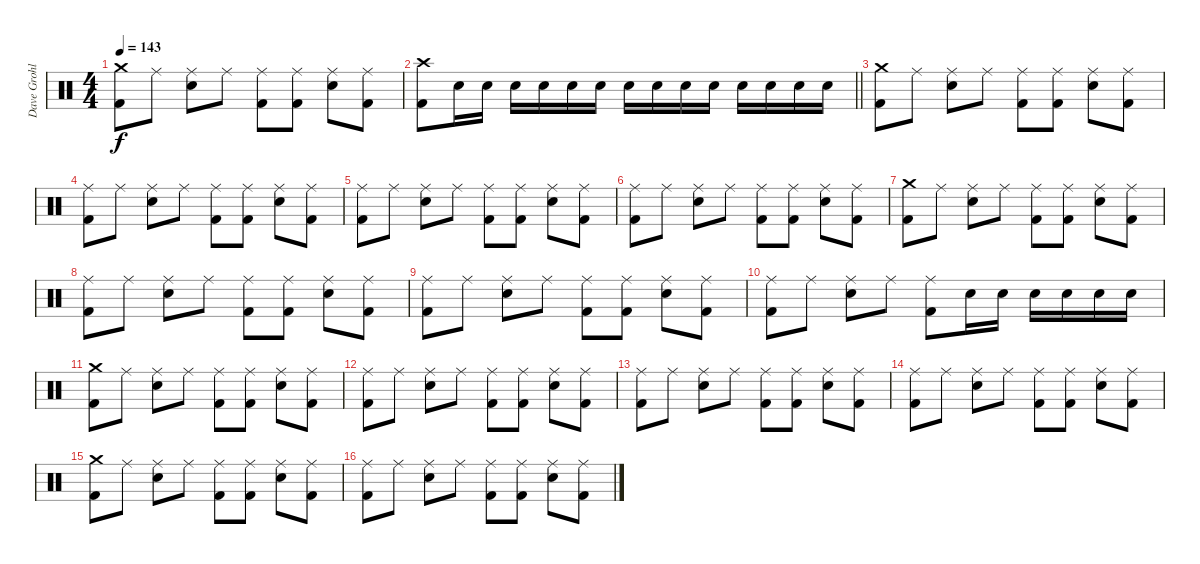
\track ("Dave Grohl" "Dave Grohl") {instrument percussion}
\staff {score}
\articulation defaults
\ts (4 4)
\tempo 143
\clef neutral
\ks c
("Crash medium (hit)" "Kick (hit) 2").8{dy f} "Ride (middle)".8 ("Ride (middle)" "Snare (hit) 2").8 "Ride (middle)".8 ("Ride (middle)" "Kick (hit) 2").8 ("Ride (middle)" "Kick (hit) 2").8 ("Ride (middle)" "Snare (hit) 2").8 ("Ride (middle)" "Kick (hit) 2").8 |
\barLineRight lightlight
("Crash high (hit)" "Kick (hit) 2").8 "Snare (hit) 2".16 "Snare (hit) 2".16 "Snare (hit) 2".16 "Snare (hit) 2".16 "Snare (hit) 2".16 "Snare (hit) 2".16 "Snare (hit) 2".16 "Snare (hit) 2".16 "Snare (hit) 2".16 "Snare (hit) 2".16 "Snare (hit) 2".16 "Snare (hit) 2".16 "Snare (hit) 2".16 "Snare (hit) 2".16 |
("Crash medium (hit)" "Kick (hit) 2").8 "Ride (middle)".8 ("Ride (middle)" "Snare (hit) 2").8 "Ride (middle)".8 ("Ride (middle)" "Kick (hit) 2").8 ("Ride (middle)" "Kick (hit) 2").8 ("Ride (middle)" "Snare (hit) 2").8 ("Ride (middle)" "Kick (hit) 2").8 |
("Ride (middle)" "Kick (hit) 2").8 "Ride (middle)".8 ("Ride (middle)" "Snare (hit) 2").8 "Ride (middle)".8 ("Ride (middle)" "Kick (hit) 2").8 ("Ride (middle)" "Kick (hit) 2").8 ("Ride (middle)" "Snare (hit) 2").8 ("Ride (middle)" "Kick (hit) 2").8 |
("Ride (middle)" "Kick (hit) 2").8 "Ride (middle)".8 ("Ride (middle)" "Snare (hit) 2").8 "Ride (middle)".8 ("Ride (middle)" "Kick (hit) 2").8 ("Ride (middle)" "Kick (hit) 2").8 ("Ride (middle)" "Snare (hit) 2").8 ("Ride (middle)" "Kick (hit) 2").8 |
("Ride (middle)" "Kick (hit) 2").8 "Ride (middle)".8 ("Ride (middle)" "Snare (hit) 2").8 "Ride (middle)".8 ("Ride (middle)" "Kick (hit) 2").8 ("Ride (middle)" "Kick (hit) 2").8 ("Ride (middle)" "Snare (hit) 2").8 ("Ride (middle)" "Kick (hit) 2").8 |
("Crash medium (hit)" "Kick (hit) 2").8 "Ride (middle)".8 ("Ride (middle)" "Snare (hit) 2").8 "Ride (middle)".8 ("Ride (middle)" "Kick (hit) 2").8 ("Ride (middle)" "Kick (hit) 2").8 ("Ride (middle)" "Snare (hit) 2").8 ("Ride (middle)" "Kick (hit) 2").8 |
("Ride (middle)" "Kick (hit) 2").8 "Ride (middle)".8 ("Ride (middle)" "Snare (hit) 2").8 "Ride (middle)".8 ("Ride (middle)" "Kick (hit) 2").8 ("Ride (middle)" "Kick (hit) 2").8 ("Ride (middle)" "Snare (hit) 2").8 ("Ride (middle)" "Kick (hit) 2").8 |
("Ride (middle)" "Kick (hit) 2").8 "Ride (middle)".8 ("Ride (middle)" "Snare (hit) 2").8 "Ride (middle)".8 ("Ride (middle)" "Kick (hit) 2").8 ("Ride (middle)" "Kick (hit) 2").8 ("Ride (middle)" "Snare (hit) 2").8 ("Ride (middle)" "Kick (hit) 2").8 |
("Ride (middle)" "Kick (hit) 2").8 "Ride (middle)".8 ("Ride (middle)" "Snare (hit) 2").8 "Ride (middle)".8 ("Ride (middle)" "Kick (hit) 2").8 "Snare (hit) 2".16 "Snare (hit) 2".16 "Snare (hit) 2".16 "Snare (hit) 2".16 "Snare (hit) 2".16 "Snare (hit) 2".16 |
("Crash medium (hit)" "Kick (hit) 2").8 "Ride (middle)".8 ("Ride (middle)" "Snare (hit) 2").8 "Ride (middle)".8 ("Ride (middle)" "Kick (hit) 2").8 ("Ride (middle)" "Kick (hit) 2").8 ("Ride (middle)" "Snare (hit) 2").8 ("Ride (middle)" "Kick (hit) 2").8 |
("Ride (middle)" "Kick (hit) 2").8 "Ride (middle)".8 ("Ride (middle)" "Snare (hit) 2").8 "Ride (middle)".8 ("Ride (middle)" "Kick (hit) 2").8 ("Ride (middle)" "Kick (hit) 2").8 ("Ride (middle)" "Snare (hit) 2").8 ("Ride (middle)" "Kick (hit) 2").8 |
("Ride (middle)" "Kick (hit) 2").8 "Ride (middle)".8 ("Ride (middle)" "Snare (hit) 2").8 "Ride (middle)".8 ("Ride (middle)" "Kick (hit) 2").8 ("Ride (middle)" "Kick (hit) 2").8 ("Ride (middle)" "Snare (hit) 2").8 ("Ride (middle)" "Kick (hit) 2").8 |
("Ride (middle)" "Kick (hit) 2").8 "Ride (middle)".8 ("Ride (middle)" "Snare (hit) 2").8 "Ride (middle)".8 ("Ride (middle)" "Kick (hit) 2").8 ("Ride (middle)" "Kick (hit) 2").8 ("Ride (middle)" "Snare (hit) 2").8 ("Ride (middle)" "Kick (hit) 2").8 |
("Crash medium (hit)" "Kick (hit) 2").8 "Ride (middle)".8 ("Ride (middle)" "Snare (hit) 2").8 "Ride (middle)".8 ("Ride (middle)" "Kick (hit) 2").8 ("Ride (middle)" "Kick (hit) 2").8 ("Ride (middle)" "Snare (hit) 2").8 ("Ride (middle)" "Kick (hit) 2").8 |
("Ride (middle)" "Kick (hit) 2").8 "Ride (middle)".8 ("Ride (middle)" "Snare (hit) 2").8 "Ride (middle)".8 ("Ride (middle)" "Kick (hit) 2").8 ("Ride (middle)" "Kick (hit) 2").8 ("Ride (middle)" "Snare (hit) 2").8 ("Ride (middle)" "Kick (hit) 2").8
